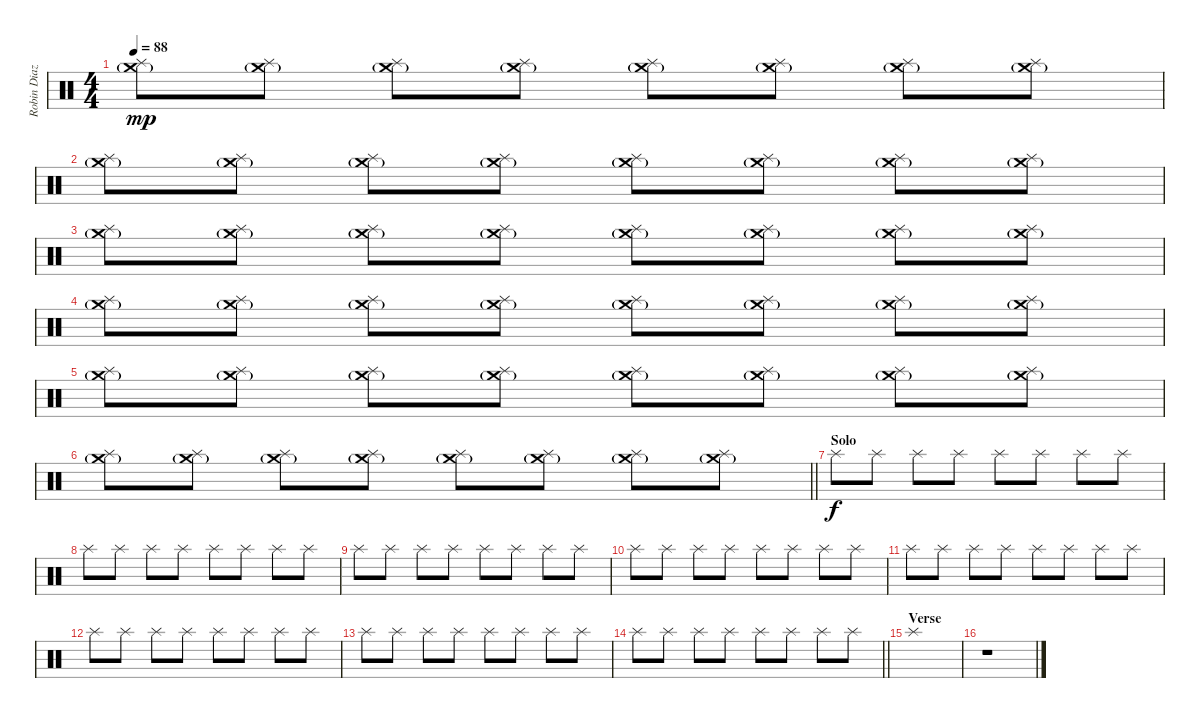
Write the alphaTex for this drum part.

\track ("Robin Diaz (Drums)" "Robin Diaz") {instrument percussion}
\staff {score}
\articulation defaults
\ts (4 4)
\tempo 88
\clef neutral
\ks c
("Splash (hit)" "Crash medium (hit)"{g}).8{dy mp} ("Splash (hit)" "Crash medium (hit)"{g}).8 ("Splash (hit)" "Crash medium (hit)"{g}).8 ("Splash (hit)" "Crash medium (hit)"{g}).8 ("Splash (hit)" "Crash medium (hit)"{g}).8 ("Splash (hit)" "Crash medium (hit)"{g}).8 ("Splash (hit)" "Crash medium (hit)"{g}).8 ("Splash (hit)" "Crash medium (hit)"{g}).8 |
("Splash (hit)" "Crash medium (hit)"{g}).8 ("Splash (hit)" "Crash medium (hit)"{g}).8 ("Splash (hit)" "Crash medium (hit)"{g}).8 ("Splash (hit)" "Crash medium (hit)"{g}).8 ("Splash (hit)" "Crash medium (hit)"{g}).8 ("Splash (hit)" "Crash medium (hit)"{g}).8 ("Splash (hit)" "Crash medium (hit)"{g}).8 ("Splash (hit)" "Crash medium (hit)"{g}).8 |
("Splash (hit)" "Crash medium (hit)"{g}).8 ("Splash (hit)" "Crash medium (hit)"{g}).8 ("Splash (hit)" "Crash medium (hit)"{g}).8 ("Splash (hit)" "Crash medium (hit)"{g}).8 ("Splash (hit)" "Crash medium (hit)"{g}).8 ("Splash (hit)" "Crash medium (hit)"{g}).8 ("Splash (hit)" "Crash medium (hit)"{g}).8 ("Splash (hit)" "Crash medium (hit)"{g}).8 |
("Splash (hit)" "Crash medium (hit)"{g}).8 ("Splash (hit)" "Crash medium (hit)"{g}).8 ("Splash (hit)" "Crash medium (hit)"{g}).8 ("Splash (hit)" "Crash medium (hit)"{g}).8 ("Splash (hit)" "Crash medium (hit)"{g}).8 ("Splash (hit)" "Crash medium (hit)"{g}).8 ("Splash (hit)" "Crash medium (hit)"{g}).8 ("Splash (hit)" "Crash medium (hit)"{g}).8 |
("Splash (hit)" "Crash medium (hit)"{g}).8 ("Splash (hit)" "Crash medium (hit)"{g}).8 ("Splash (hit)" "Crash medium (hit)"{g}).8 ("Splash (hit)" "Crash medium (hit)"{g}).8 ("Splash (hit)" "Crash medium (hit)"{g}).8 ("Splash (hit)" "Crash medium (hit)"{g}).8 ("Splash (hit)" "Crash medium (hit)"{g}).8 ("Splash (hit)" "Crash medium (hit)"{g}).8 |
\barLineRight lightlight
("Splash (hit)" "Crash medium (hit)"{g}).8 ("Splash (hit)" "Crash medium (hit)"{g}).8 ("Splash (hit)" "Crash medium (hit)"{g}).8 ("Splash (hit)" "Crash medium (hit)"{g}).8 ("Splash (hit)" "Crash medium (hit)"{g}).8 ("Splash (hit)" "Crash medium (hit)"{g}).8 ("Splash (hit)" "Crash medium (hit)"{g}).8 ("Splash (hit)" "Crash medium (hit)"{g}).8 |
\section ("" "Solo")
"Splash (hit)".8{dy f} "Splash (hit)".8 "Splash (hit)".8 "Splash (hit)".8 "Splash (hit)".8 "Splash (hit)".8 "Splash (hit)".8 "Splash (hit)".8 |
"Splash (hit)".8 "Splash (hit)".8 "Splash (hit)".8 "Splash (hit)".8 "Splash (hit)".8 "Splash (hit)".8 "Splash (hit)".8 "Splash (hit)".8 |
"Splash (hit)".8 "Splash (hit)".8 "Splash (hit)".8 "Splash (hit)".8 "Splash (hit)".8 "Splash (hit)".8 "Splash (hit)".8 "Splash (hit)".8 |
"Splash (hit)".8 "Splash (hit)".8 "Splash (hit)".8 "Splash (hit)".8 "Splash (hit)".8 "Splash (hit)".8 "Splash (hit)".8 "Splash (hit)".8 |
"Splash (hit)".8 "Splash (hit)".8 "Splash (hit)".8 "Splash (hit)".8 "Splash (hit)".8 "Splash (hit)".8 "Splash (hit)".8 "Splash (hit)".8 |
"Splash (hit)".8 "Splash (hit)".8 "Splash (hit)".8 "Splash (hit)".8 "Splash (hit)".8 "Splash (hit)".8 "Splash (hit)".8 "Splash (hit)".8 |
"Splash (hit)".8 "Splash (hit)".8 "Splash (hit)".8 "Splash (hit)".8 "Splash (hit)".8 "Splash (hit)".8 "Splash (hit)".8 "Splash (hit)".8 |
\barLineRight lightlight "Splash (hit)".8 "Splash (hit)".8 "Splash (hit)".8 "Splash (hit)".8 "Splash (hit)".8 "Splash (hit)".8 "Splash (hit)".8 "Splash (hit)".8
|
\section ("" "Verse")
"Splash (hit)".1 |
r.1
